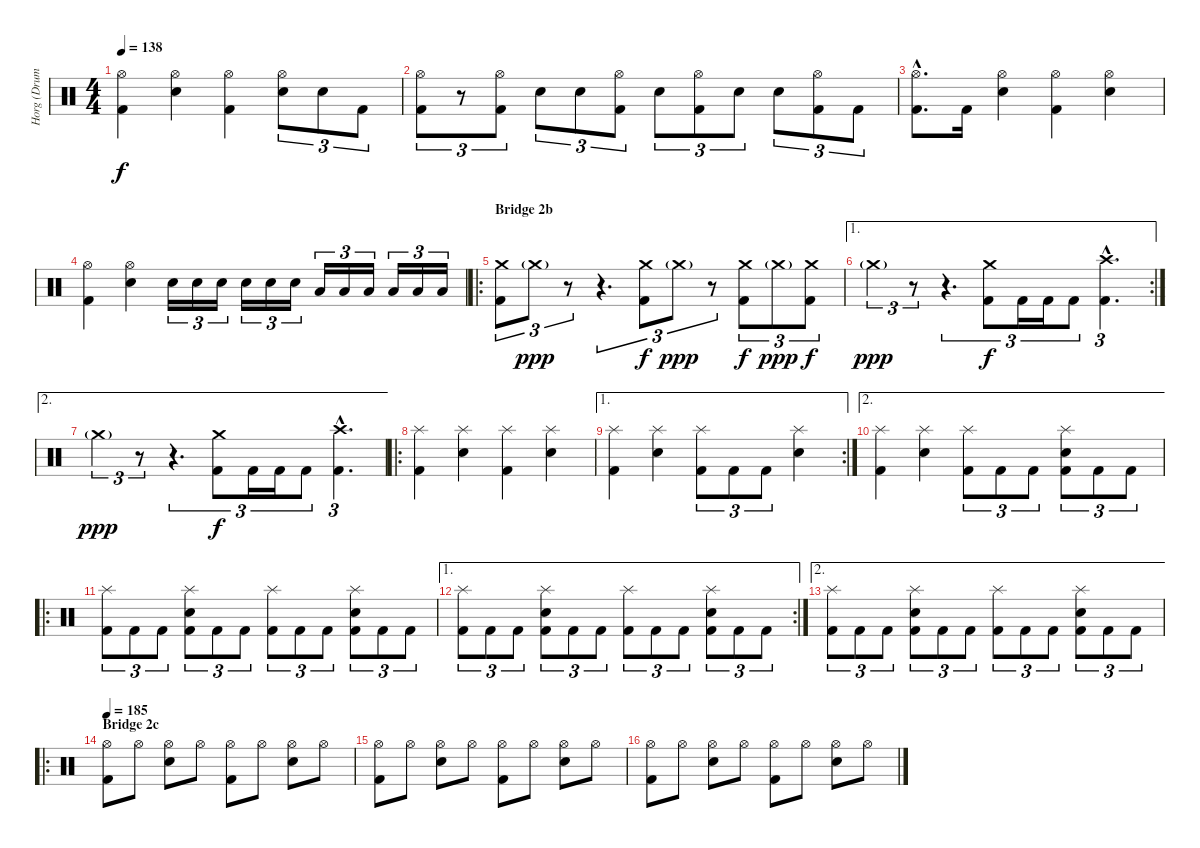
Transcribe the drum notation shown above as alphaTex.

\track ("Horg (Drums)" "Horg (Drum") {instrument percussion}
\staff {score}
\articulation defaults
\ts (4 4)
\tempo 138
\clef neutral
\ks c
("Hi-Hat (open)" "Kick (hit) 2").4{dy f} ("Hi-Hat (open)" "Electric Snare (hit)").4 ("Hi-Hat (open)" "Kick (hit) 2").4 ("Hi-Hat (open)" "Electric Snare (hit)").8{tu (3 2)} "Electric Snare (hit)".8{tu (3 2)} "Kick (hit) 2".8{tu (3 2)} |
("Hi-Hat (open)" "Kick (hit) 2").8{tu (3 2)} r.8{tu (3 2)} ("Hi-Hat (open)" "Kick (hit) 2").8{tu (3 2)} "Electric Snare (hit)".8{tu (3 2)} "Electric Snare (hit)".8{tu (3 2)} ("Hi-Hat (open)" "Kick (hit) 2").8{tu (3 2)} "Electric Snare (hit)".8{tu (3 2)} ("Hi-Hat (open)" "Kick (hit) 2").8{tu (3 2)} "Electric Snare (hit)".8{tu (3 2)} "Electric Snare (hit)".8{tu (3 2)} ("Hi-Hat (open)" "Kick (hit) 2").8{tu (3 2)} "Kick (hit) 2".8{tu (3 2)} |
("Hi-Hat (open)"{hac} "Kick (hit) 2"{hac}).8{d} "Kick (hit) 2".16 ("Hi-Hat (open)" "Electric Snare (hit)").4 ("Hi-Hat (open)" "Kick (hit) 2").4 ("Hi-Hat (open)" "Electric Snare (hit)").4 |
("Hi-Hat (open)" "Kick (hit) 2").4 ("Hi-Hat (open)" "Electric Snare (hit)").4 "Electric Snare (hit)".16{tu (3 2)} "Electric Snare (hit)".16{tu (3 2)} "Electric Snare (hit)".16{tu (3 2)} "Electric Snare (hit)".16{tu (3 2)} "Electric Snare (hit)".16{tu (3 2)} "Electric Snare (hit)".16{tu (3 2)} "Low Tom (hit)".16{tu (3 2)} "Low Tom (hit)".16{tu (3 2)} "Low Tom (hit)".16{tu (3 2)} "Low Tom (hit)".16{tu (3 2)} "Low Tom (hit)".16{tu (3 2)} "Low Tom (hit)".16{tu (3 2)} |
\ro
\section ("" "Bridge 2b")
("Crash medium (hit)" "Kick (hit) 2").8{tu (3 2)} "Crash medium (hit)"{g}.8{tu (3 2) dy ppp} r.8{tu (3 2) volume 0} r.4{d tu (3 2)} ("Crash medium (hit)" "Kick (hit) 2").8{tu (3 2) dy f volume 15} "Crash medium (hit)"{g}.8{tu (3 2) dy ppp} r.8{tu (3 2)} ("Crash medium (hit)" "Kick (hit) 2").8{tu (3 2) dy f} "Crash medium (hit)"{g}.8{tu (3 2) dy ppp} ("Crash medium (hit)" "Kick (hit) 2").8{tu (3 2) dy f} |
\ae 1
\rc 2 "Crash medium (hit)"{g}.4{tu (3 2) dy ppp}
r.8{tu (3 2)} r.4{d tu (3 2)} ("Crash medium (hit)" "Kick (hit) 2").8{tu (3 2) dy f} "Kick (hit) 2".16{tu (3 2)} "Kick (hit) 2".16{tu (3 2)} "Kick (hit) 2".8{tu (3 2)} ("Crash high (hit)"{hac} "Kick (hit) 2"{hac}).4{d tu (3 2)} |
\ae 2 "Crash medium (hit)"{g}.4{tu (3 2) dy ppp}
r.8{tu (3 2)} r.4{d tu (3 2)} ("Crash medium (hit)" "Kick (hit) 2").8{tu (3 2) dy f} "Kick (hit) 2".16{tu (3 2)} "Kick (hit) 2".16{tu (3 2)} "Kick (hit) 2".8{tu (3 2)} ("Crash high (hit)"{hac} "Kick (hit) 2"{hac}).4{d tu (3 2)} |
\ro
("Splash (hit)" "Kick (hit) 2").4 ("Splash (hit)" "Electric Snare (hit)").4 ("Splash (hit)" "Kick (hit) 2").4 ("Splash (hit)" "Electric Snare (hit)").4 |
\ae 1
\rc 2
("Splash (hit)" "Kick (hit) 2").4 ("Splash (hit)" "Electric Snare (hit)").4 ("Splash (hit)" "Kick (hit) 2").8{tu (3 2)} "Kick (hit) 2".8{tu (3 2)} "Kick (hit) 2".8{tu (3 2)} ("Splash (hit)" "Electric Snare (hit)").4 |
\ae 2
("Splash (hit)" "Kick (hit) 2").4 ("Splash (hit)" "Electric Snare (hit)").4 ("Splash (hit)" "Kick (hit) 2").8{tu (3 2)} "Kick (hit) 2".8{tu (3 2)} "Kick (hit) 2".8{tu (3 2)} ("Splash (hit)" "Electric Snare (hit)" "Kick (hit) 2").8{tu (3 2)} "Kick (hit) 2".8{tu (3 2)} "Kick (hit) 2".8{tu (3 2)} |
\ro
("Splash (hit)" "Kick (hit) 2").8{tu (3 2)} "Kick (hit) 2".8{tu (3 2)} "Kick (hit) 2".8{tu (3 2)} ("Splash (hit)" "Electric Snare (hit)" "Kick (hit) 2").8{tu (3 2)} "Kick (hit) 2".8{tu (3 2)} "Kick (hit) 2".8{tu (3 2)} ("Splash (hit)" "Kick (hit) 2").8{tu (3 2)} "Kick (hit) 2".8{tu (3 2)} "Kick (hit) 2".8{tu (3 2)} ("Splash (hit)" "Electric Snare (hit)" "Kick (hit) 2").8{tu (3 2)} "Kick (hit) 2".8{tu (3 2)} "Kick (hit) 2".8{tu (3 2)} |
\ae 1
\rc 2
("Splash (hit)" "Kick (hit) 2").8{tu (3 2)} "Kick (hit) 2".8{tu (3 2)} "Kick (hit) 2".8{tu (3 2)} ("Splash (hit)" "Electric Snare (hit)" "Kick (hit) 2").8{tu (3 2)} "Kick (hit) 2".8{tu (3 2)} "Kick (hit) 2".8{tu (3 2)} ("Splash (hit)" "Kick (hit) 2").8{tu (3 2)} "Kick (hit) 2".8{tu (3 2)} "Kick (hit) 2".8{tu (3 2)} ("Splash (hit)" "Electric Snare (hit)" "Kick (hit) 2").8{tu (3 2)} "Kick (hit) 2".8{tu (3 2)} "Kick (hit) 2".8{tu (3 2)} |
\ae 2
("Splash (hit)" "Kick (hit) 2").8{tu (3 2)} "Kick (hit) 2".8{tu (3 2)} "Kick (hit) 2".8{tu (3 2)} ("Splash (hit)" "Electric Snare (hit)" "Kick (hit) 2").8{tu (3 2)} "Kick (hit) 2".8{tu (3 2)} "Kick (hit) 2".8{tu (3 2)} ("Splash (hit)" "Kick (hit) 2").8{tu (3 2)} "Kick (hit) 2".8{tu (3 2)} "Kick (hit) 2".8{tu (3 2)} ("Splash (hit)" "Electric Snare (hit)" "Kick (hit) 2").8{tu (3 2)} "Kick (hit) 2".8{tu (3 2)} "Kick (hit) 2".8{tu (3 2)} |
\ro
\section ("" "Bridge 2c")
\tempo 185
("Hi-Hat (open)" "Kick (hit) 2").8 "Hi-Hat (open)".8 ("Hi-Hat (open)" "Electric Snare (hit)").8 "Hi-Hat (open)".8 ("Hi-Hat (open)" "Kick (hit) 2").8 "Hi-Hat (open)".8 ("Hi-Hat (open)" "Electric Snare (hit)").8 "Hi-Hat (open)".8 |
("Hi-Hat (open)" "Kick (hit) 2").8 "Hi-Hat (open)".8 ("Hi-Hat (open)" "Electric Snare (hit)").8 "Hi-Hat (open)".8 ("Hi-Hat (open)" "Kick (hit) 2").8 "Hi-Hat (open)".8 ("Hi-Hat (open)" "Electric Snare (hit)").8 "Hi-Hat (open)".8 |
("Hi-Hat (open)" "Kick (hit) 2").8 "Hi-Hat (open)".8 ("Hi-Hat (open)" "Electric Snare (hit)").8 "Hi-Hat (open)".8 ("Hi-Hat (open)" "Kick (hit) 2").8 "Hi-Hat (open)".8 ("Hi-Hat (open)" "Electric Snare (hit)").8 "Hi-Hat (open)".8
